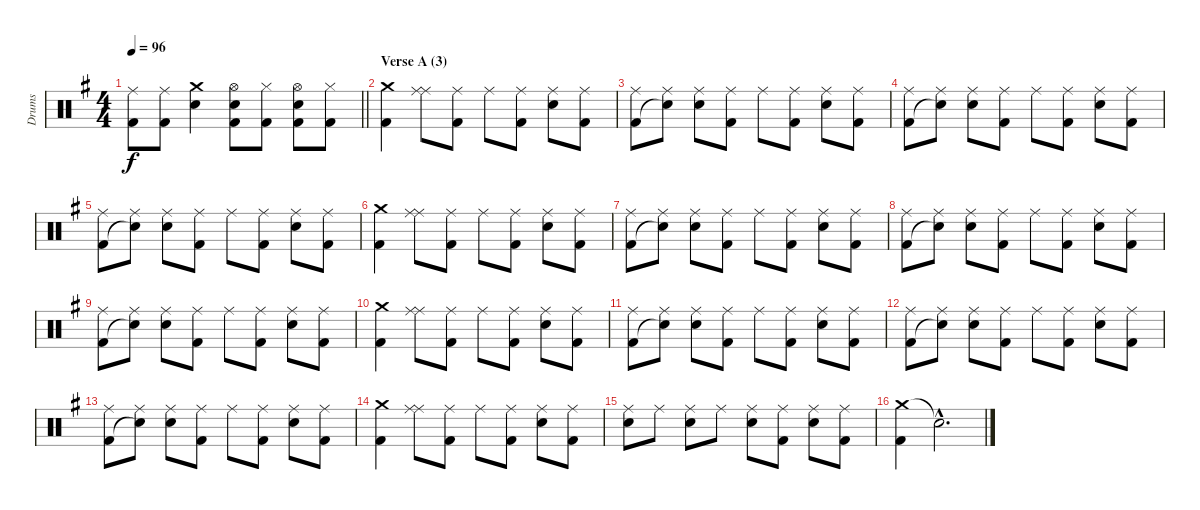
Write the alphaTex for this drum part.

\track ("Drums" "Drums") {instrument percussion}
\staff {score}
\articulation defaults
\ts (4 4)
\tempo 96
\clef neutral
\barLineRight lightlight
\ks eminor
("Ride (middle)" "Kick (hit) 2").8{dy f} ("Ride (middle)" "Kick (hit) 2").8 ("Crash medium (hit)" "Electric Snare (hit)").4 ("Hi-Hat (open)" "Electric Snare (hit)" "Kick (hit) 2").8 ("Hi-Hat (closed)" "Kick (hit) 2").8 ("Hi-Hat (open)" "Electric Snare (hit)" "Kick (hit) 2").8 ("Hi-Hat (closed)" "Kick (hit) 2").8 |
\section ("" "Verse A (3)")
("Crash medium (hit)" "Kick (hit) 2").4 ("Ride (middle)" "Ride (middle)").8 ("Ride (middle)" "Kick (hit) 2").8 "Ride (middle)".8 ("Ride (middle)" "Kick (hit) 2").8 ("Ride (middle)" "Electric Snare (hit)").8 ("Ride (middle)" "Kick (hit) 2").8 |
("Ride (middle)" "Kick (hit) 2").8 ("Ride (middle)" "Snare (hit)"{t}).8 ("Ride (middle)" "Electric Snare (hit)").8 ("Ride (middle)" "Kick (hit) 2").8 "Ride (middle)".8 ("Ride (middle)" "Kick (hit) 2").8 ("Ride (middle)" "Electric Snare (hit)").8 ("Ride (middle)" "Kick (hit) 2").8 |
("Ride (middle)" "Kick (hit) 2").8 ("Ride (middle)" "Snare (hit)"{t}).8 ("Ride (middle)" "Electric Snare (hit)").8 ("Ride (middle)" "Kick (hit) 2").8 "Ride (middle)".8 ("Ride (middle)" "Kick (hit) 2").8 ("Ride (middle)" "Electric Snare (hit)").8 ("Ride (middle)" "Kick (hit) 2").8 |
("Ride (middle)" "Kick (hit) 2").8 ("Ride (middle)" "Snare (hit)"{t}).8 ("Ride (middle)" "Electric Snare (hit)").8 ("Ride (middle)" "Kick (hit) 2").8 "Ride (middle)".8 ("Ride (middle)" "Kick (hit) 2").8 ("Ride (middle)" "Electric Snare (hit)").8 ("Ride (middle)" "Kick (hit) 2").8 |
("Crash medium (hit)" "Kick (hit) 2").4 ("Ride (middle)" "Ride (middle)").8 ("Ride (middle)" "Kick (hit) 2").8 "Ride (middle)".8 ("Ride (middle)" "Kick (hit) 2").8 ("Ride (middle)" "Electric Snare (hit)").8 ("Ride (middle)" "Kick (hit) 2").8 |
("Ride (middle)" "Kick (hit) 2").8 ("Ride (middle)" "Snare (hit)"{t}).8 ("Ride (middle)" "Electric Snare (hit)").8 ("Ride (middle)" "Kick (hit) 2").8 "Ride (middle)".8 ("Ride (middle)" "Kick (hit) 2").8 ("Ride (middle)" "Electric Snare (hit)").8 ("Ride (middle)" "Kick (hit) 2").8 |
("Ride (middle)" "Kick (hit) 2").8 ("Ride (middle)" "Snare (hit)"{t}).8 ("Ride (middle)" "Electric Snare (hit)").8 ("Ride (middle)" "Kick (hit) 2").8 "Ride (middle)".8 ("Ride (middle)" "Kick (hit) 2").8 ("Ride (middle)" "Electric Snare (hit)").8 ("Ride (middle)" "Kick (hit) 2").8 |
("Ride (middle)" "Kick (hit) 2").8 ("Ride (middle)" "Snare (hit)"{t}).8 ("Ride (middle)" "Electric Snare (hit)").8 ("Ride (middle)" "Kick (hit) 2").8 "Ride (middle)".8 ("Ride (middle)" "Kick (hit) 2").8 ("Ride (middle)" "Electric Snare (hit)").8 ("Ride (middle)" "Kick (hit) 2").8 |
("Crash medium (hit)" "Kick (hit) 2").4 ("Ride (middle)" "Ride (middle)").8 ("Ride (middle)" "Kick (hit) 2").8 "Ride (middle)".8 ("Ride (middle)" "Kick (hit) 2").8 ("Ride (middle)" "Electric Snare (hit)").8 ("Ride (middle)" "Kick (hit) 2").8 |
("Ride (middle)" "Kick (hit) 2").8 ("Ride (middle)" "Snare (hit)"{t}).8 ("Ride (middle)" "Electric Snare (hit)").8 ("Ride (middle)" "Kick (hit) 2").8 "Ride (middle)".8 ("Ride (middle)" "Kick (hit) 2").8 ("Ride (middle)" "Electric Snare (hit)").8 ("Ride (middle)" "Kick (hit) 2").8 |
("Ride (middle)" "Kick (hit) 2").8 ("Ride (middle)" "Snare (hit)"{t}).8 ("Ride (middle)" "Electric Snare (hit)").8 ("Ride (middle)" "Kick (hit) 2").8 "Ride (middle)".8 ("Ride (middle)" "Kick (hit) 2").8 ("Ride (middle)" "Electric Snare (hit)").8 ("Ride (middle)" "Kick (hit) 2").8 |
("Ride (middle)" "Kick (hit) 2").8 ("Ride (middle)" "Snare (hit)"{t}).8 ("Ride (middle)" "Electric Snare (hit)").8 ("Ride (middle)" "Kick (hit) 2").8 "Ride (middle)".8 ("Ride (middle)" "Kick (hit) 2").8 ("Ride (middle)" "Electric Snare (hit)").8 ("Ride (middle)" "Kick (hit) 2").8 |
("Crash medium (hit)" "Kick (hit) 2").4 ("Ride (middle)" "Ride (middle)").8 ("Ride (middle)" "Kick (hit) 2").8 "Ride (middle)".8 ("Ride (middle)" "Kick (hit) 2").8 ("Ride (middle)" "Electric Snare (hit)").8 ("Ride (middle)" "Kick (hit) 2").8 |
("Ride (middle)" "Electric Snare (hit)").8 "Ride (middle)".8 ("Ride (middle)" "Electric Snare (hit)").8 "Ride (middle)".8 ("Ride (middle)" "Electric Snare (hit)").8 ("Ride (middle)" "Kick (hit) 2").8 ("Ride (middle)" "Electric Snare (hit)").8 ("Ride (middle)" "Kick (hit) 2").8 |
("Crash medium (hit)" "Kick (hit) 2").4 "Snare (hit)"{hac t}.2{d}
